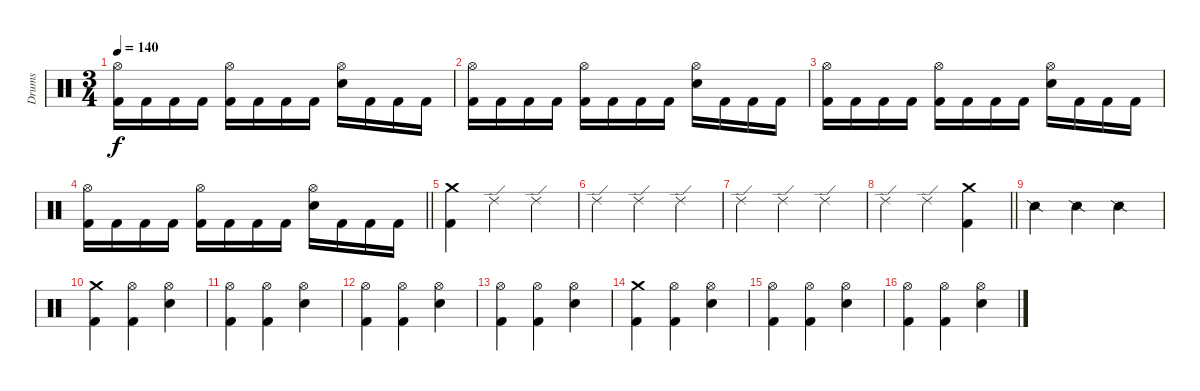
\track ("Drums" "Drums") {instrument percussion}
\staff {score}
\articulation defaults
\ts (3 4)
\tempo 140
\clef neutral
\ks c
("Kick (hit) 2" "Hi-Hat (open)").16{dy f} "Kick (hit) 2".16 "Kick (hit) 2".16 "Kick (hit) 2".16 ("Kick (hit) 2" "Hi-Hat (open)").16 "Kick (hit) 2".16 "Kick (hit) 2".16 "Kick (hit) 2".16 ("Electric Snare (hit)" "Hi-Hat (open)").16 "Kick (hit) 2".16 "Kick (hit) 2".16 "Kick (hit) 2".16 |
("Kick (hit) 2" "Hi-Hat (open)").16 "Kick (hit) 2".16 "Kick (hit) 2".16 "Kick (hit) 2".16 ("Kick (hit) 2" "Hi-Hat (open)").16 "Kick (hit) 2".16 "Kick (hit) 2".16 "Kick (hit) 2".16 ("Electric Snare (hit)" "Hi-Hat (open)").16 "Kick (hit) 2".16 "Kick (hit) 2".16 "Kick (hit) 2".16 |
("Kick (hit) 2" "Hi-Hat (open)").16 "Kick (hit) 2".16 "Kick (hit) 2".16 "Kick (hit) 2".16 ("Kick (hit) 2" "Hi-Hat (open)").16 "Kick (hit) 2".16 "Kick (hit) 2".16 "Kick (hit) 2".16 ("Electric Snare (hit)" "Hi-Hat (open)").16 "Kick (hit) 2".16 "Kick (hit) 2".16 "Kick (hit) 2".16 |
\barLineRight lightlight
("Kick (hit) 2" "Hi-Hat (open)").16 "Kick (hit) 2".16 "Kick (hit) 2".16 "Kick (hit) 2".16 ("Kick (hit) 2" "Hi-Hat (open)").16 "Kick (hit) 2".16 "Kick (hit) 2".16 "Kick (hit) 2".16 ("Electric Snare (hit)" "Hi-Hat (open)").16 "Kick (hit) 2".16 "Kick (hit) 2".16 "Kick (hit) 2".16 |
("Kick (hit) 2" "Crash medium (hit)").4 "Ride (edge) 2".4 "Ride (edge) 2".4 |
"Ride (edge) 2".4 "Ride (edge) 2".4 "Ride (edge) 2".4 |
"Ride (edge) 2".4 "Ride (edge) 2".4 "Ride (edge) 2".4 |
\barLineRight lightlight "Ride (edge) 2".4 "Ride (edge) 2".4
("Kick (hit) 2" "Crash medium (hit)").4 |
"Snare (side stick) 2".4 "Snare (side stick) 2".4 "Snare (side stick) 2".4 |
("Kick (hit) 2" "Crash medium (hit)").4 ("Kick (hit) 2" "Hi-Hat (open)").4 ("Hi-Hat (open)" "Electric Snare (hit)").4 |
("Kick (hit) 2" "Hi-Hat (open)").4 ("Kick (hit) 2" "Hi-Hat (open)").4 ("Hi-Hat (open)" "Electric Snare (hit)").4 |
("Kick (hit) 2" "Hi-Hat (open)").4 ("Kick (hit) 2" "Hi-Hat (open)").4 ("Hi-Hat (open)" "Electric Snare (hit)").4 |
("Kick (hit) 2" "Hi-Hat (open)").4 ("Kick (hit) 2" "Hi-Hat (open)").4 ("Hi-Hat (open)" "Electric Snare (hit)").4 |
("Kick (hit) 2" "Crash medium (hit)").4 ("Kick (hit) 2" "Hi-Hat (open)").4 ("Hi-Hat (open)" "Electric Snare (hit)").4 |
("Kick (hit) 2" "Hi-Hat (open)").4 ("Kick (hit) 2" "Hi-Hat (open)").4 ("Hi-Hat (open)" "Electric Snare (hit)").4 |
("Kick (hit) 2" "Hi-Hat (open)").4 ("Kick (hit) 2" "Hi-Hat (open)").4 ("Hi-Hat (open)" "Electric Snare (hit)").4
